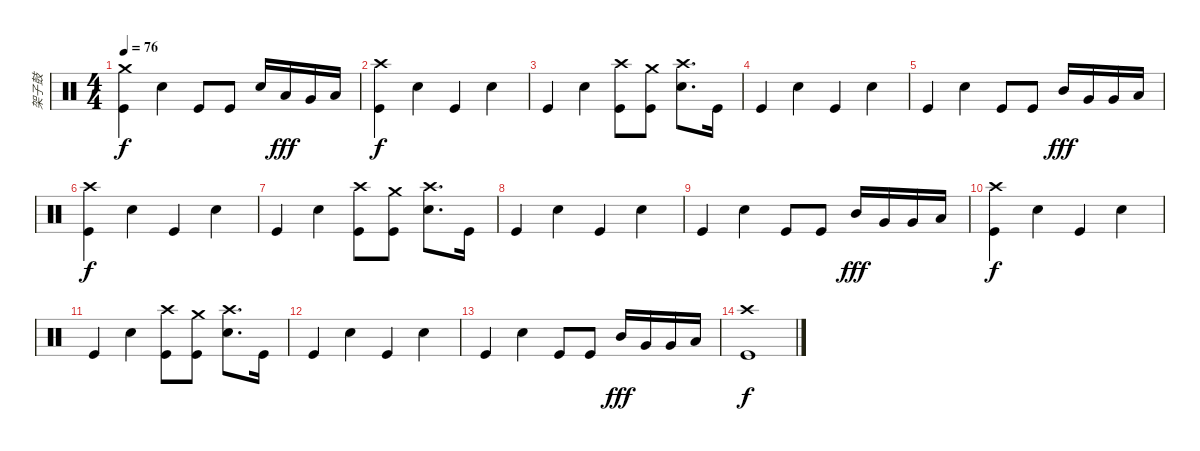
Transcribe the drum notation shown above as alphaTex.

\track ("架子鼓" "架子鼓") {instrument percussion}
\staff {score}
\articulation defaults
\ts (4 4)
\tempo 76
\clef neutral
\ks c
("Kick (hit)" "Crash medium (hit)").4{dy f} "Electric Snare (hit)".4 "Kick (hit)".8 "Kick (hit)".8 "Electric Snare (hit)".16 "Low Tom (hit)".16{dy fff} "Very Low Tom (hit)".16 "Low Floor Tom (hit)".16 |
("Kick (hit)" "Crash high (hit)").4{dy f} "Electric Snare (hit)".4 "Kick (hit)".4 "Electric Snare (hit)".4 |
"Kick (hit)".4 "Electric Snare (hit)".4 ("Kick (hit)" "Crash high (hit)").8 ("Kick (hit)" "Crash medium (hit)").8 ("Electric Snare (hit)" "Crash high (hit)").8{d} "Kick (hit)".16 |
"Kick (hit)".4 "Electric Snare (hit)".4 "Kick (hit)".4 "Electric Snare (hit)".4 |
"Kick (hit)".4 "Electric Snare (hit)".4 "Kick (hit)".8 "Kick (hit)".8 "Mid Tom (hit)".16{dy fff} "Very Low Tom (hit)".16 "Very Low Tom (hit)".16 "Low Floor Tom (hit)".16 |
("Kick (hit)" "Crash high (hit)").4{dy f} "Electric Snare (hit)".4 "Kick (hit)".4 "Electric Snare (hit)".4 |
"Kick (hit)".4 "Electric Snare (hit)".4 ("Kick (hit)" "Crash high (hit)").8 ("Kick (hit)" "Crash medium (hit)").8 ("Electric Snare (hit)" "Crash high (hit)").8{d} "Kick (hit)".16 |
"Kick (hit)".4 "Electric Snare (hit)".4 "Kick (hit)".4 "Electric Snare (hit)".4 |
"Kick (hit)".4 "Electric Snare (hit)".4 "Kick (hit)".8 "Kick (hit)".8 "Mid Tom (hit)".16{dy fff} "Very Low Tom (hit)".16 "Very Low Tom (hit)".16 "Low Floor Tom (hit)".16 |
("Kick (hit)" "Crash high (hit)").4{dy f} "Electric Snare (hit)".4 "Kick (hit)".4 "Electric Snare (hit)".4 |
"Kick (hit)".4 "Electric Snare (hit)".4 ("Kick (hit)" "Crash high (hit)").8 ("Kick (hit)" "Crash medium (hit)").8 ("Electric Snare (hit)" "Crash high (hit)").8{d} "Kick (hit)".16 |
"Kick (hit)".4 "Electric Snare (hit)".4 "Kick (hit)".4 "Electric Snare (hit)".4 |
"Kick (hit)".4 "Electric Snare (hit)".4 "Kick (hit)".8 "Kick (hit)".8 "Mid Tom (hit)".16{dy fff} "Very Low Tom (hit)".16 "Very Low Tom (hit)".16 "Low Floor Tom (hit)".16 |
("Kick (hit)" "Crash high (hit)").1{dy f}
